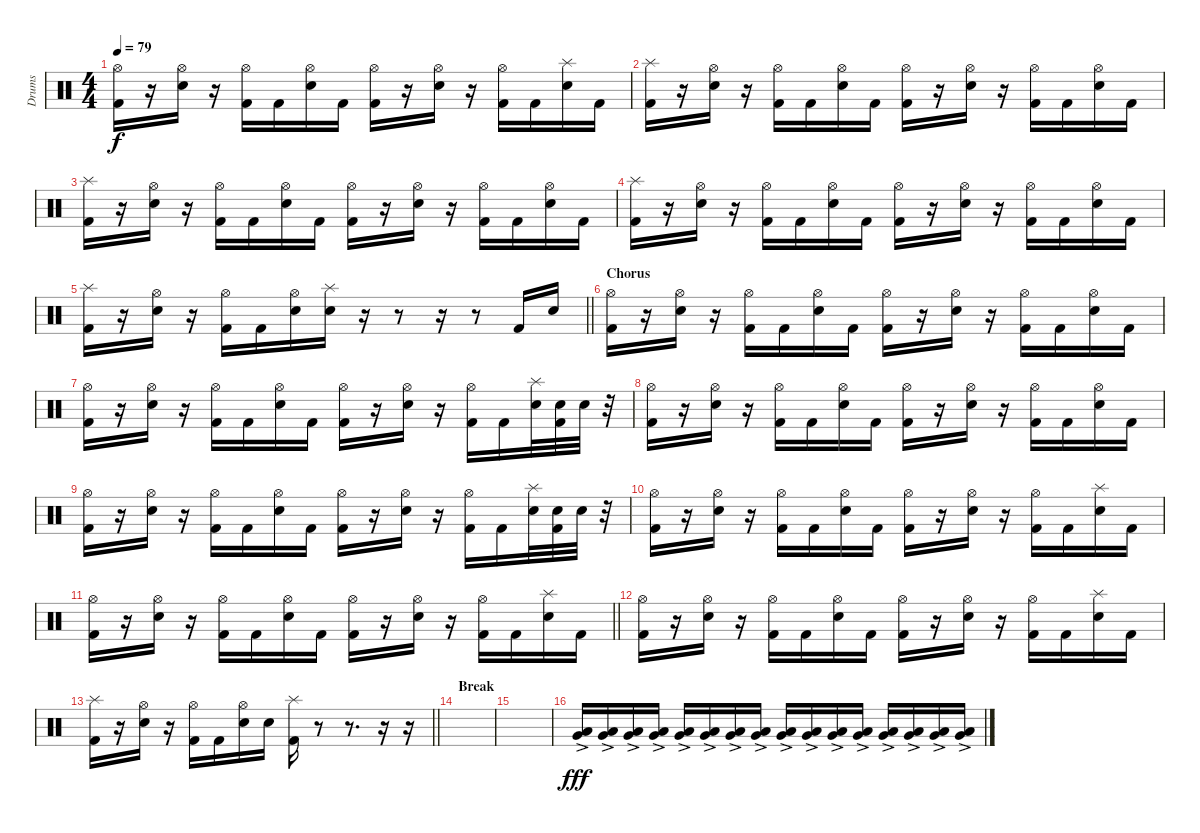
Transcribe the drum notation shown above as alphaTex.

\track ("Drums" "Drums") {instrument percussion}
\staff {score}
\articulation defaults
\ts (4 4)
\tempo 79
\clef neutral
\ks c
("Hi-Hat (open)" "Kick (hit) 2").16{dy f} r.16 ("Hi-Hat (open)" "Electric Snare (hit)").16 r.16 ("Hi-Hat (open)" "Kick (hit) 2").16 "Kick (hit) 2".16 ("Hi-Hat (open)" "Electric Snare (hit)").16 "Kick (hit) 2".16 ("Hi-Hat (open)" "Kick (hit) 2").16 r.16 ("Hi-Hat (open)" "Electric Snare (hit)").16 r.16 ("Hi-Hat (open)" "Kick (hit) 2").16 "Kick (hit) 2".16 ("Splash (hit)" "Electric Snare (hit)").16 "Kick (hit) 2".16 |
("Splash (hit)" "Kick (hit) 2").16 r.16 ("Hi-Hat (open)" "Electric Snare (hit)").16 r.16 ("Hi-Hat (open)" "Kick (hit) 2").16 "Kick (hit) 2".16 ("Hi-Hat (open)" "Electric Snare (hit)").16 "Kick (hit) 2".16 ("Hi-Hat (open)" "Kick (hit) 2").16 r.16 ("Hi-Hat (open)" "Electric Snare (hit)").16 r.16 ("Hi-Hat (open)" "Kick (hit) 2").16 "Kick (hit) 2".16 ("Hi-Hat (open)" "Electric Snare (hit)").16 "Kick (hit) 2".16 |
("Splash (hit)" "Kick (hit) 2").16 r.16 ("Hi-Hat (open)" "Electric Snare (hit)").16 r.16 ("Hi-Hat (open)" "Kick (hit) 2").16 "Kick (hit) 2".16 ("Hi-Hat (open)" "Electric Snare (hit)").16 "Kick (hit) 2".16 ("Hi-Hat (open)" "Kick (hit) 2").16 r.16 ("Hi-Hat (open)" "Electric Snare (hit)").16 r.16 ("Hi-Hat (open)" "Kick (hit) 2").16 "Kick (hit) 2".16 ("Hi-Hat (open)" "Electric Snare (hit)").16 "Kick (hit) 2".16 |
("Splash (hit)" "Kick (hit) 2").16 r.16 ("Hi-Hat (open)" "Electric Snare (hit)").16 r.16 ("Hi-Hat (open)" "Kick (hit) 2").16 "Kick (hit) 2".16 ("Hi-Hat (open)" "Electric Snare (hit)").16 "Kick (hit) 2".16 ("Hi-Hat (open)" "Kick (hit) 2").16 r.16 ("Hi-Hat (open)" "Electric Snare (hit)").16 r.16 ("Hi-Hat (open)" "Kick (hit) 2").16 "Kick (hit) 2".16 ("Hi-Hat (open)" "Electric Snare (hit)").16 "Kick (hit) 2".16 |
\barLineRight lightlight
("Splash (hit)" "Kick (hit) 2").16 r.16 ("Hi-Hat (open)" "Electric Snare (hit)").16 r.16 ("Hi-Hat (open)" "Kick (hit) 2").16 "Kick (hit) 2".16 ("Hi-Hat (open)" "Electric Snare (hit)").16 ("Splash (hit)" "Electric Snare (hit)").16 r.16 r.8 r.16 r.8 "Kick (hit) 2".16 "Electric Snare (hit)".16 |
\section ("" "Chorus")
("Hi-Hat (open)" "Kick (hit) 2").16 r.16 ("Hi-Hat (open)" "Electric Snare (hit)").16 r.16 ("Hi-Hat (open)" "Kick (hit) 2").16 "Kick (hit) 2".16 ("Hi-Hat (open)" "Electric Snare (hit)").16 "Kick (hit) 2".16 ("Hi-Hat (open)" "Kick (hit) 2").16 r.16 ("Hi-Hat (open)" "Electric Snare (hit)").16 r.16 ("Hi-Hat (open)" "Kick (hit) 2").16 "Kick (hit) 2".16 ("Hi-Hat (open)" "Electric Snare (hit)").16 "Kick (hit) 2".16 |
("Hi-Hat (open)" "Kick (hit) 2").16 r.16 ("Hi-Hat (open)" "Electric Snare (hit)").16 r.16 ("Hi-Hat (open)" "Kick (hit) 2").16 "Kick (hit) 2".16 ("Hi-Hat (open)" "Electric Snare (hit)").16 "Kick (hit) 2".16 ("Hi-Hat (open)" "Kick (hit) 2").16 r.16 ("Hi-Hat (open)" "Electric Snare (hit)").16 r.16 ("Hi-Hat (open)" "Kick (hit) 2").16 "Kick (hit) 2".16 ("Splash (hit)" "Electric Snare (hit)").32 ("Electric Snare (hit)" "Kick (hit) 2").32 "Electric Snare (hit)".32 r.32 |
("Hi-Hat (open)" "Kick (hit) 2").16 r.16 ("Hi-Hat (open)" "Electric Snare (hit)").16 r.16 ("Hi-Hat (open)" "Kick (hit) 2").16 "Kick (hit) 2".16 ("Hi-Hat (open)" "Electric Snare (hit)").16 "Kick (hit) 2".16 ("Hi-Hat (open)" "Kick (hit) 2").16 r.16 ("Hi-Hat (open)" "Electric Snare (hit)").16 r.16 ("Hi-Hat (open)" "Kick (hit) 2").16 "Kick (hit) 2".16 ("Hi-Hat (open)" "Electric Snare (hit)").16 "Kick (hit) 2".16 |
("Hi-Hat (open)" "Kick (hit) 2").16 r.16 ("Hi-Hat (open)" "Electric Snare (hit)").16 r.16 ("Hi-Hat (open)" "Kick (hit) 2").16 "Kick (hit) 2".16 ("Hi-Hat (open)" "Electric Snare (hit)").16 "Kick (hit) 2".16 ("Hi-Hat (open)" "Kick (hit) 2").16 r.16 ("Hi-Hat (open)" "Electric Snare (hit)").16 r.16 ("Hi-Hat (open)" "Kick (hit) 2").16 "Kick (hit) 2".16 ("Splash (hit)" "Electric Snare (hit)").32 ("Electric Snare (hit)" "Kick (hit) 2").32 "Electric Snare (hit)".32 r.32 |
("Hi-Hat (open)" "Kick (hit) 2").16 r.16 ("Hi-Hat (open)" "Electric Snare (hit)").16 r.16 ("Hi-Hat (open)" "Kick (hit) 2").16 "Kick (hit) 2".16 ("Hi-Hat (open)" "Electric Snare (hit)").16 "Kick (hit) 2".16 ("Hi-Hat (open)" "Kick (hit) 2").16 r.16 ("Hi-Hat (open)" "Electric Snare (hit)").16 r.16 ("Hi-Hat (open)" "Kick (hit) 2").16 "Kick (hit) 2".16 ("Splash (hit)" "Electric Snare (hit)").16 "Kick (hit) 2".16 |
\barLineRight lightlight
("Hi-Hat (open)" "Kick (hit) 2").16 r.16 ("Hi-Hat (open)" "Electric Snare (hit)").16 r.16 ("Hi-Hat (open)" "Kick (hit) 2").16 "Kick (hit) 2".16 ("Hi-Hat (open)" "Electric Snare (hit)").16 "Kick (hit) 2".16 ("Hi-Hat (open)" "Kick (hit) 2").16 r.16 ("Hi-Hat (open)" "Electric Snare (hit)").16 r.16 ("Hi-Hat (open)" "Kick (hit) 2").16 "Kick (hit) 2".16 ("Splash (hit)" "Electric Snare (hit)").16 "Kick (hit) 2".16 |
("Hi-Hat (open)" "Kick (hit) 2").16 r.16 ("Hi-Hat (open)" "Electric Snare (hit)").16 r.16 ("Hi-Hat (open)" "Kick (hit) 2").16 "Kick (hit) 2".16 ("Hi-Hat (open)" "Electric Snare (hit)").16 "Kick (hit) 2".16 ("Hi-Hat (open)" "Kick (hit) 2").16 r.16 ("Hi-Hat (open)" "Electric Snare (hit)").16 r.16 ("Hi-Hat (open)" "Kick (hit) 2").16 "Kick (hit) 2".16 ("Splash (hit)" "Electric Snare (hit)").16 "Kick (hit) 2".16 |
\barLineRight lightlight
("Splash (hit)" "Kick (hit) 2").16 r.16 ("Hi-Hat (open)" "Electric Snare (hit)").16 r.16 ("Hi-Hat (open)" "Kick (hit) 2").16 "Kick (hit) 2".16 ("Hi-Hat (open)" "Electric Snare (hit)").16 "Electric Snare (hit)".16 ("Splash (hit)" "Kick (hit) 2").16 r.8 r.8{d} r.16 r.16 |
\section ("" "Break")
|
|
("Very Low Tom (hit)"{ac} "Low Floor Tom (hit)").16{dy fff} ("Very Low Tom (hit)"{ac} "Low Floor Tom (hit)"{ac}).16 ("Very Low Tom (hit)"{ac} "Low Floor Tom (hit)"{ac}).16 ("Very Low Tom (hit)"{ac} "Low Floor Tom (hit)"{ac}).16 ("Very Low Tom (hit)"{ac} "Low Floor Tom (hit)"{ac}).16 ("Very Low Tom (hit)"{ac} "Low Floor Tom (hit)"{ac}).16 ("Very Low Tom (hit)"{ac} "Low Floor Tom (hit)"{ac}).16 ("Very Low Tom (hit)"{ac} "Low Floor Tom (hit)"{ac}).16 ("Very Low Tom (hit)"{ac} "Low Floor Tom (hit)"{ac}).16 ("Very Low Tom (hit)"{ac} "Low Floor Tom (hit)"{ac}).16 ("Very Low Tom (hit)"{ac} "Low Floor Tom (hit)"{ac}).16 ("Very Low Tom (hit)"{ac} "Low Floor Tom (hit)"{ac}).16 ("Very Low Tom (hit)"{ac} "Low Floor Tom (hit)"{ac}).16 ("Very Low Tom (hit)"{ac} "Low Floor Tom (hit)"{ac}).16 ("Very Low Tom (hit)"{ac} "Low Floor Tom (hit)"{ac}).16 ("Very Low Tom (hit)"{ac} "Low Floor Tom (hit)"{ac}).16
